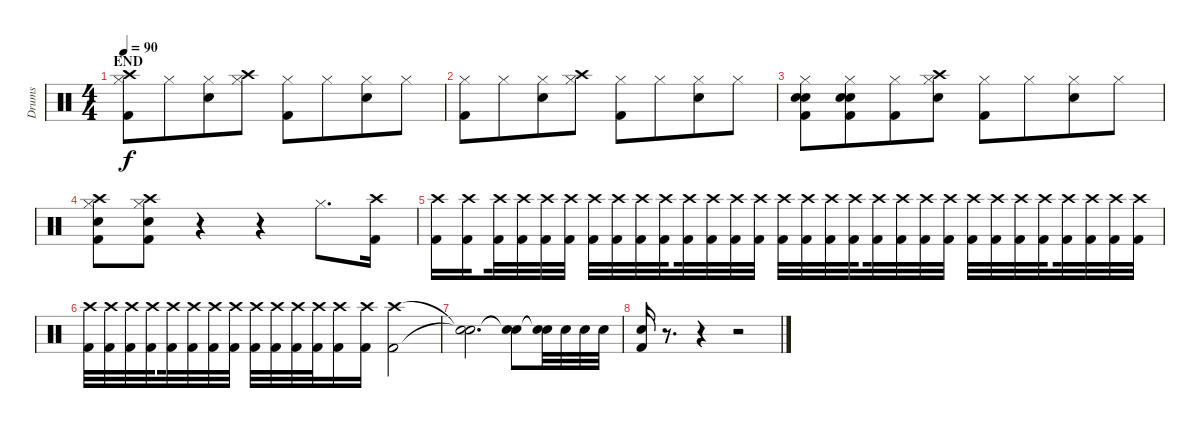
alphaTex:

\track ("Drums" "Drums") {instrument percussion}
\staff {score}
\articulation defaults
\ts (4 4)
\section ("" "END")
\tempo 90
\clef neutral
\ks c
("Crash high (hit)" "Hi-Hat (closed)" "Kick (hit) 2").8{dy f} "Hi-Hat (closed)".8{beam merge} ("Hi-Hat (closed)" "Electric Snare (hit)").8 ("Crash high (hit)" "Hi-Hat (closed)").8 ("Hi-Hat (closed)" "Kick (hit) 2").8 "Hi-Hat (closed)".8{beam merge} ("Hi-Hat (closed)" "Electric Snare (hit)").8 "Hi-Hat (closed)".8 |
("Hi-Hat (closed)" "Kick (hit) 2").8 "Hi-Hat (closed)".8{beam merge} ("Hi-Hat (closed)" "Electric Snare (hit)").8 ("Crash high (hit)" "Hi-Hat (closed)").8 ("Hi-Hat (closed)" "Kick (hit) 2").8 "Hi-Hat (closed)".8{beam merge} ("Hi-Hat (closed)" "Electric Snare (hit)").8 "Hi-Hat (closed)".8 |
("Hi-Hat (closed)" "Electric Snare (hit)" "Electric Snare (hit)" "Kick (hit) 2").8 ("Hi-Hat (closed)" "Electric Snare (hit)" "Electric Snare (hit)" "Kick (hit) 2").8{beam merge} ("Hi-Hat (closed)" "Kick (hit) 2").8 ("Crash high (hit)" "Hi-Hat (closed)" "Electric Snare (hit)").8 ("Hi-Hat (closed)" "Kick (hit) 2").8 "Hi-Hat (closed)".8{beam merge} ("Hi-Hat (closed)" "Electric Snare (hit)").8 "Hi-Hat (closed)".8 |
("Crash high (hit)" "Hi-Hat (closed)" "Electric Snare (hit)" "Kick (hit) 2").8 ("Crash high (hit)" "Hi-Hat (closed)" "Electric Snare (hit)" "Kick (hit) 2").8 r.4 r.4 "Hi-Hat (closed)".8{d} ("Crash high (hit)" "Kick (hit) 2").16 |
("Crash high (hit)" "Kick (hit) 2").16 ("Crash high (hit)" "Kick (hit) 2").16{beam splitsecondary} ("Crash high (hit)" "Kick (hit) 2").32 ("Crash high (hit)" "Kick (hit) 2").32 ("Crash high (hit)" "Kick (hit) 2").32 ("Crash high (hit)" "Kick (hit) 2").32{beam splitsecondary} ("Crash high (hit)" "Kick (hit) 2").32 ("Crash high (hit)" "Kick (hit) 2").32 ("Crash high (hit)" "Kick (hit) 2").32 ("Crash high (hit)" "Kick (hit) 2").32{beam splitsecondary} ("Crash high (hit)" "Kick (hit) 2").32 ("Crash high (hit)" "Kick (hit) 2").32 ("Crash high (hit)" "Kick (hit) 2").32 ("Crash high (hit)" "Kick (hit) 2").32{beam splitsecondary} ("Crash high (hit)" "Kick (hit) 2").32 ("Crash high (hit)" "Kick (hit) 2").32 ("Crash high (hit)" "Kick (hit) 2").32 ("Crash high (hit)" "Kick (hit) 2").32{beam splitsecondary} ("Crash high (hit)" "Kick (hit) 2").32 ("Crash high (hit)" "Kick (hit) 2").32 ("Crash high (hit)" "Kick (hit) 2").32 ("Crash high (hit)" "Kick (hit) 2").32{beam splitsecondary} ("Crash high (hit)" "Kick (hit) 2").32 ("Crash high (hit)" "Kick (hit) 2").32 ("Crash high (hit)" "Kick (hit) 2").32 ("Crash high (hit)" "Kick (hit) 2").32{beam splitsecondary} ("Crash high (hit)" "Kick (hit) 2").32 ("Crash high (hit)" "Kick (hit) 2").32 ("Crash high (hit)" "Kick (hit) 2").32 ("Crash high (hit)" "Kick (hit) 2").32 |
("Crash high (hit)" "Kick (hit) 2").32 ("Crash high (hit)" "Kick (hit) 2").32 ("Crash high (hit)" "Kick (hit) 2").32 ("Crash high (hit)" "Kick (hit) 2").32{beam splitsecondary} ("Crash high (hit)" "Kick (hit) 2").32 ("Crash high (hit)" "Kick (hit) 2").32 ("Crash high (hit)" "Kick (hit) 2").32 ("Crash high (hit)" "Kick (hit) 2").32{beam splitsecondary} ("Crash high (hit)" "Kick (hit) 2").32 ("Crash high (hit)" "Kick (hit) 2").32 ("Crash high (hit)" "Kick (hit) 2").32 ("Crash high (hit)" "Kick (hit) 2").32 ("Crash high (hit)" "Kick (hit) 2").16 ("Crash high (hit)" "Kick (hit) 2").16 ("Crash high (hit)" "Kick (hit) 2").2 |
("Snare (hit)"{t} "Snare (hit)"{t}).2{d} ("Snare (hit)"{t} "Snare (hit)"{t}).8 ("Snare (hit)"{t} "Snare (hit)"{t}).32 "Electric Snare (hit)".32 "Electric Snare (hit)".32 "Electric Snare (hit)".32 |
("Electric Snare (hit)" "Kick (hit) 2").16 r.8{d} r.4 r.2
